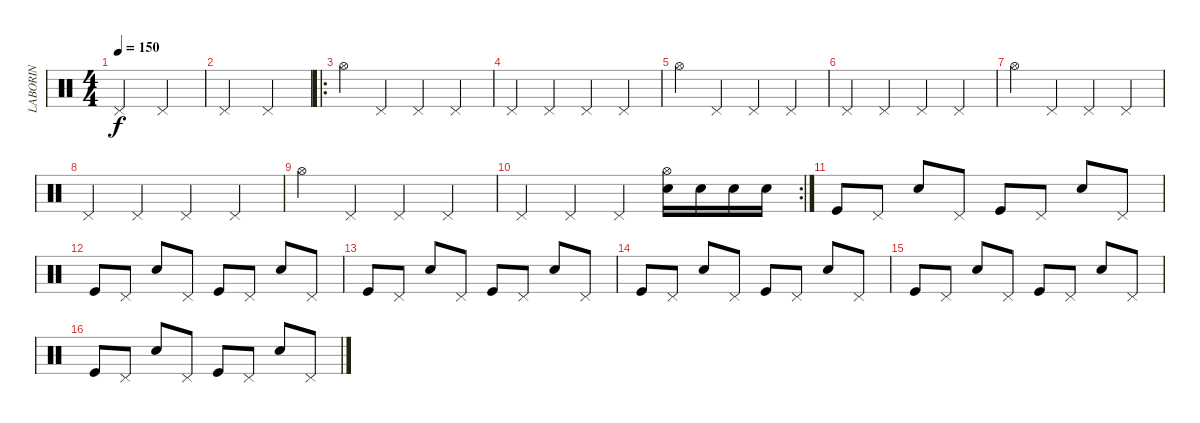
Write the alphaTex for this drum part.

\track ("LABORIN" "LABORIN") {instrument percussion}
\staff {score}
\articulation defaults
\ts (4 4)
\tempo 150
\clef neutral
\ks c "Pedal Hi-Hat (hit)".2{dy f} "Pedal Hi-Hat (hit)".2
|
"Pedal Hi-Hat (hit)".2 "Pedal Hi-Hat (hit)".2 |
\ro "Hi-Hat (open)".4 "Pedal Hi-Hat (hit)".4 "Pedal Hi-Hat (hit)".4 "Pedal Hi-Hat (hit)".4
|
"Pedal Hi-Hat (hit)".4 "Pedal Hi-Hat (hit)".4 "Pedal Hi-Hat (hit)".4 "Pedal Hi-Hat (hit)".4 |
"Hi-Hat (open)".4 "Pedal Hi-Hat (hit)".4 "Pedal Hi-Hat (hit)".4 "Pedal Hi-Hat (hit)".4 |
"Pedal Hi-Hat (hit)".4 "Pedal Hi-Hat (hit)".4 "Pedal Hi-Hat (hit)".4 "Pedal Hi-Hat (hit)".4 |
"Hi-Hat (open)".4 "Pedal Hi-Hat (hit)".4 "Pedal Hi-Hat (hit)".4 "Pedal Hi-Hat (hit)".4 |
"Pedal Hi-Hat (hit)".4 "Pedal Hi-Hat (hit)".4 "Pedal Hi-Hat (hit)".4 "Pedal Hi-Hat (hit)".4 |
"Hi-Hat (open)".4 "Pedal Hi-Hat (hit)".4 "Pedal Hi-Hat (hit)".4 "Pedal Hi-Hat (hit)".4 |
\rc 2 "Pedal Hi-Hat (hit)".4 "Pedal Hi-Hat (hit)".4 "Pedal Hi-Hat (hit)".4
("Snare (hit) 2" "Hi-Hat (open)").16 "Snare (hit) 2".16 "Snare (hit) 2".16 "Snare (hit) 2".16 |
"Kick (hit)".8 "Pedal Hi-Hat (hit)".8 "Snare (hit) 2".8 "Pedal Hi-Hat (hit)".8 "Kick (hit)".8 "Pedal Hi-Hat (hit)".8 "Snare (hit) 2".8 "Pedal Hi-Hat (hit)".8 |
"Kick (hit)".8 "Pedal Hi-Hat (hit)".8 "Snare (hit) 2".8 "Pedal Hi-Hat (hit)".8 "Kick (hit)".8 "Pedal Hi-Hat (hit)".8 "Snare (hit) 2".8 "Pedal Hi-Hat (hit)".8 |
"Kick (hit)".8 "Pedal Hi-Hat (hit)".8 "Snare (hit) 2".8 "Pedal Hi-Hat (hit)".8 "Kick (hit)".8 "Pedal Hi-Hat (hit)".8 "Snare (hit) 2".8 "Pedal Hi-Hat (hit)".8 |
"Kick (hit)".8 "Pedal Hi-Hat (hit)".8 "Snare (hit) 2".8 "Pedal Hi-Hat (hit)".8 "Kick (hit)".8 "Pedal Hi-Hat (hit)".8 "Snare (hit) 2".8 "Pedal Hi-Hat (hit)".8 |
"Kick (hit)".8 "Pedal Hi-Hat (hit)".8 "Snare (hit) 2".8 "Pedal Hi-Hat (hit)".8 "Kick (hit)".8 "Pedal Hi-Hat (hit)".8 "Snare (hit) 2".8 "Pedal Hi-Hat (hit)".8 |
"Kick (hit)".8 "Pedal Hi-Hat (hit)".8 "Snare (hit) 2".8 "Pedal Hi-Hat (hit)".8 "Kick (hit)".8 "Pedal Hi-Hat (hit)".8 "Snare (hit) 2".8 "Pedal Hi-Hat (hit)".8
